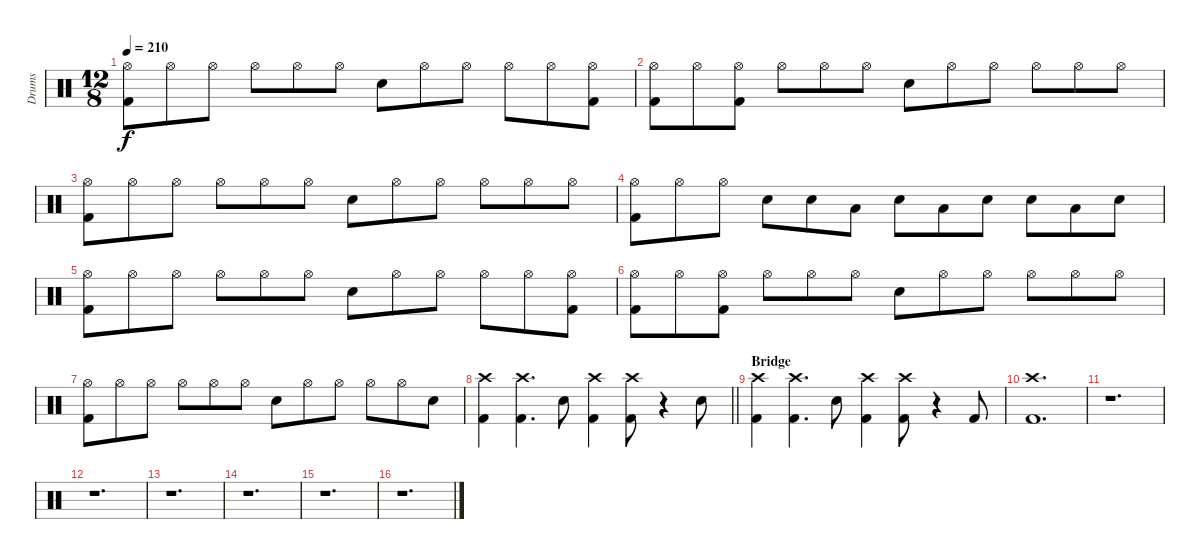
\track ("Drums" "Drums") {instrument percussion}
\staff {score}
\articulation defaults
\ts (12 8)
\tempo 210
\clef neutral
\ks c
("Hi-Hat (open)" "Kick (hit) 2").8{dy f} "Hi-Hat (open)".8 "Hi-Hat (open)".8 "Hi-Hat (open)".8 "Hi-Hat (open)".8 "Hi-Hat (open)".8 "Electric Snare (hit)".8 "Hi-Hat (open)".8 "Hi-Hat (open)".8 "Hi-Hat (open)".8 "Hi-Hat (open)".8 ("Hi-Hat (open)" "Kick (hit) 2").8 |
("Hi-Hat (open)" "Kick (hit) 2").8 "Hi-Hat (open)".8 ("Hi-Hat (open)" "Kick (hit) 2").8 "Hi-Hat (open)".8 "Hi-Hat (open)".8 "Hi-Hat (open)".8 "Electric Snare (hit)".8 "Hi-Hat (open)".8 "Hi-Hat (open)".8 "Hi-Hat (open)".8 "Hi-Hat (open)".8 "Hi-Hat (open)".8 |
("Hi-Hat (open)" "Kick (hit) 2").8 "Hi-Hat (open)".8 "Hi-Hat (open)".8 "Hi-Hat (open)".8 "Hi-Hat (open)".8 "Hi-Hat (open)".8 "Electric Snare (hit)".8 "Hi-Hat (open)".8 "Hi-Hat (open)".8 "Hi-Hat (open)".8 "Hi-Hat (open)".8 "Hi-Hat (open)".8 |
("Hi-Hat (open)" "Kick (hit) 2").8 "Hi-Hat (open)".8 "Hi-Hat (open)".8 "Electric Snare (hit)".8 "Electric Snare (hit)".8 "Low Tom (hit)".8 "Electric Snare (hit)".8 "Low Tom (hit)".8 "Electric Snare (hit)".8 "Electric Snare (hit)".8 "Low Tom (hit)".8 "Electric Snare (hit)".8 |
("Hi-Hat (open)" "Kick (hit) 2").8 "Hi-Hat (open)".8 "Hi-Hat (open)".8 "Hi-Hat (open)".8 "Hi-Hat (open)".8 "Hi-Hat (open)".8 "Electric Snare (hit)".8 "Hi-Hat (open)".8 "Hi-Hat (open)".8 "Hi-Hat (open)".8 "Hi-Hat (open)".8 ("Hi-Hat (open)" "Kick (hit) 2").8 |
("Hi-Hat (open)" "Kick (hit) 2").8 "Hi-Hat (open)".8 ("Hi-Hat (open)" "Kick (hit) 2").8 "Hi-Hat (open)".8 "Hi-Hat (open)".8 "Hi-Hat (open)".8 "Electric Snare (hit)".8 "Hi-Hat (open)".8 "Hi-Hat (open)".8 "Hi-Hat (open)".8 "Hi-Hat (open)".8 "Hi-Hat (open)".8 |
("Hi-Hat (open)" "Kick (hit) 2").8 "Hi-Hat (open)".8 "Hi-Hat (open)".8 "Hi-Hat (open)".8 "Hi-Hat (open)".8 "Hi-Hat (open)".8 "Electric Snare (hit)".8 "Hi-Hat (open)".8 "Hi-Hat (open)".8 "Hi-Hat (open)".8 "Hi-Hat (open)".8 "Electric Snare (hit)".8 |
\barLineRight lightlight
("Crash high (hit)" "Kick (hit) 2").4 ("Crash high (hit)" "Kick (hit) 2").4{d} "Electric Snare (hit)".8 ("Crash high (hit)" "Kick (hit) 2").4 ("Crash high (hit)" "Kick (hit) 2").8 r.4 "Electric Snare (hit)".8 |
\section ("" "Bridge")
("Crash high (hit)" "Kick (hit) 2").4 ("Crash high (hit)" "Kick (hit) 2").4{d} "Electric Snare (hit)".8 ("Crash high (hit)" "Kick (hit) 2").4 ("Crash high (hit)" "Kick (hit) 2").8 r.4 "Kick (hit) 2".8 |
("Crash high (hit)" "Kick (hit) 2").1{d} |
r.1{d} |
r.1{d} |
r.1{d} |
r.1{d} |
r.1{d} |
r.1{d}
